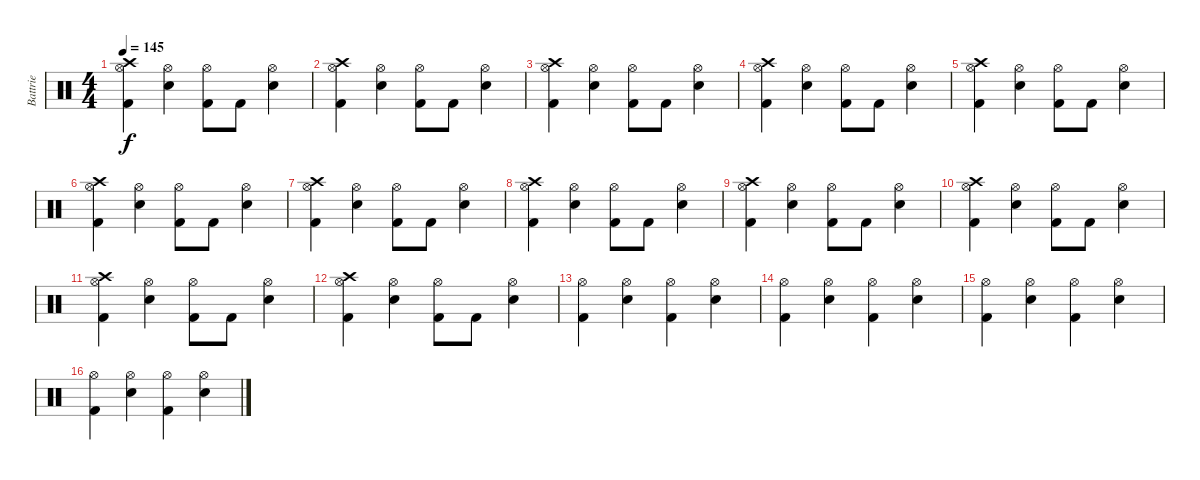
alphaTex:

\track ("Battrie" "Battrie") {instrument percussion}
\staff {score}
\articulation defaults
\ts (4 4)
\tempo 145
\clef neutral
\ks c
("Hi-Hat (open)" "Kick (hit) 2" "Crash high (hit)").4{dy f} ("Hi-Hat (open)" "Snare (hit) 2").4 ("Hi-Hat (open)" "Kick (hit) 2").8 "Kick (hit) 2".8 ("Hi-Hat (open)" "Snare (hit) 2").4 |
("Hi-Hat (open)" "Kick (hit) 2" "Crash high (hit)").4 ("Hi-Hat (open)" "Snare (hit) 2").4 ("Hi-Hat (open)" "Kick (hit) 2").8 "Kick (hit) 2".8 ("Hi-Hat (open)" "Snare (hit) 2").4 |
("Hi-Hat (open)" "Kick (hit) 2" "Crash high (hit)").4 ("Hi-Hat (open)" "Snare (hit) 2").4 ("Hi-Hat (open)" "Kick (hit) 2").8 "Kick (hit) 2".8 ("Hi-Hat (open)" "Snare (hit) 2").4 |
("Hi-Hat (open)" "Kick (hit) 2" "Crash high (hit)").4 ("Hi-Hat (open)" "Snare (hit) 2").4 ("Hi-Hat (open)" "Kick (hit) 2").8 "Kick (hit) 2".8 ("Hi-Hat (open)" "Snare (hit) 2").4 |
("Hi-Hat (open)" "Kick (hit) 2" "Crash high (hit)").4 ("Hi-Hat (open)" "Snare (hit) 2").4 ("Hi-Hat (open)" "Kick (hit) 2").8 "Kick (hit) 2".8 ("Hi-Hat (open)" "Snare (hit) 2").4 |
("Hi-Hat (open)" "Kick (hit) 2" "Crash high (hit)").4 ("Hi-Hat (open)" "Snare (hit) 2").4 ("Hi-Hat (open)" "Kick (hit) 2").8 "Kick (hit) 2".8 ("Hi-Hat (open)" "Snare (hit) 2").4 |
("Hi-Hat (open)" "Kick (hit) 2" "Crash high (hit)").4 ("Hi-Hat (open)" "Snare (hit) 2").4 ("Hi-Hat (open)" "Kick (hit) 2").8 "Kick (hit) 2".8 ("Hi-Hat (open)" "Snare (hit) 2").4 |
("Hi-Hat (open)" "Kick (hit) 2" "Crash high (hit)").4 ("Hi-Hat (open)" "Snare (hit) 2").4 ("Hi-Hat (open)" "Kick (hit) 2").8 "Kick (hit) 2".8 ("Hi-Hat (open)" "Snare (hit) 2").4 |
("Hi-Hat (open)" "Kick (hit) 2" "Crash high (hit)").4 ("Hi-Hat (open)" "Snare (hit) 2").4 ("Hi-Hat (open)" "Kick (hit) 2").8 "Kick (hit) 2".8 ("Hi-Hat (open)" "Snare (hit) 2").4 |
("Hi-Hat (open)" "Kick (hit) 2" "Crash high (hit)").4 ("Hi-Hat (open)" "Snare (hit) 2").4 ("Hi-Hat (open)" "Kick (hit) 2").8 "Kick (hit) 2".8 ("Hi-Hat (open)" "Snare (hit) 2").4 |
("Hi-Hat (open)" "Kick (hit) 2" "Crash high (hit)").4 ("Hi-Hat (open)" "Snare (hit) 2").4 ("Hi-Hat (open)" "Kick (hit) 2").8 "Kick (hit) 2".8 ("Hi-Hat (open)" "Snare (hit) 2").4 |
("Hi-Hat (open)" "Kick (hit) 2" "Crash high (hit)").4 ("Hi-Hat (open)" "Snare (hit) 2").4 ("Hi-Hat (open)" "Kick (hit) 2").8 "Kick (hit) 2".8 ("Hi-Hat (open)" "Snare (hit) 2").4 |
("Hi-Hat (open)" "Kick (hit) 2").4 ("Hi-Hat (open)" "Snare (hit) 2").4 ("Hi-Hat (open)" "Kick (hit) 2").4 ("Snare (hit) 2" "Hi-Hat (open)").4 |
("Hi-Hat (open)" "Kick (hit) 2").4 ("Hi-Hat (open)" "Snare (hit) 2").4 ("Hi-Hat (open)" "Kick (hit) 2").4 ("Snare (hit) 2" "Hi-Hat (open)").4 |
("Hi-Hat (open)" "Kick (hit) 2").4 ("Hi-Hat (open)" "Snare (hit) 2").4 ("Hi-Hat (open)" "Kick (hit) 2").4 ("Snare (hit) 2" "Hi-Hat (open)").4 |
("Hi-Hat (open)" "Kick (hit) 2").4 ("Hi-Hat (open)" "Snare (hit) 2").4 ("Hi-Hat (open)" "Kick (hit) 2").4 ("Snare (hit) 2" "Hi-Hat (open)").4
